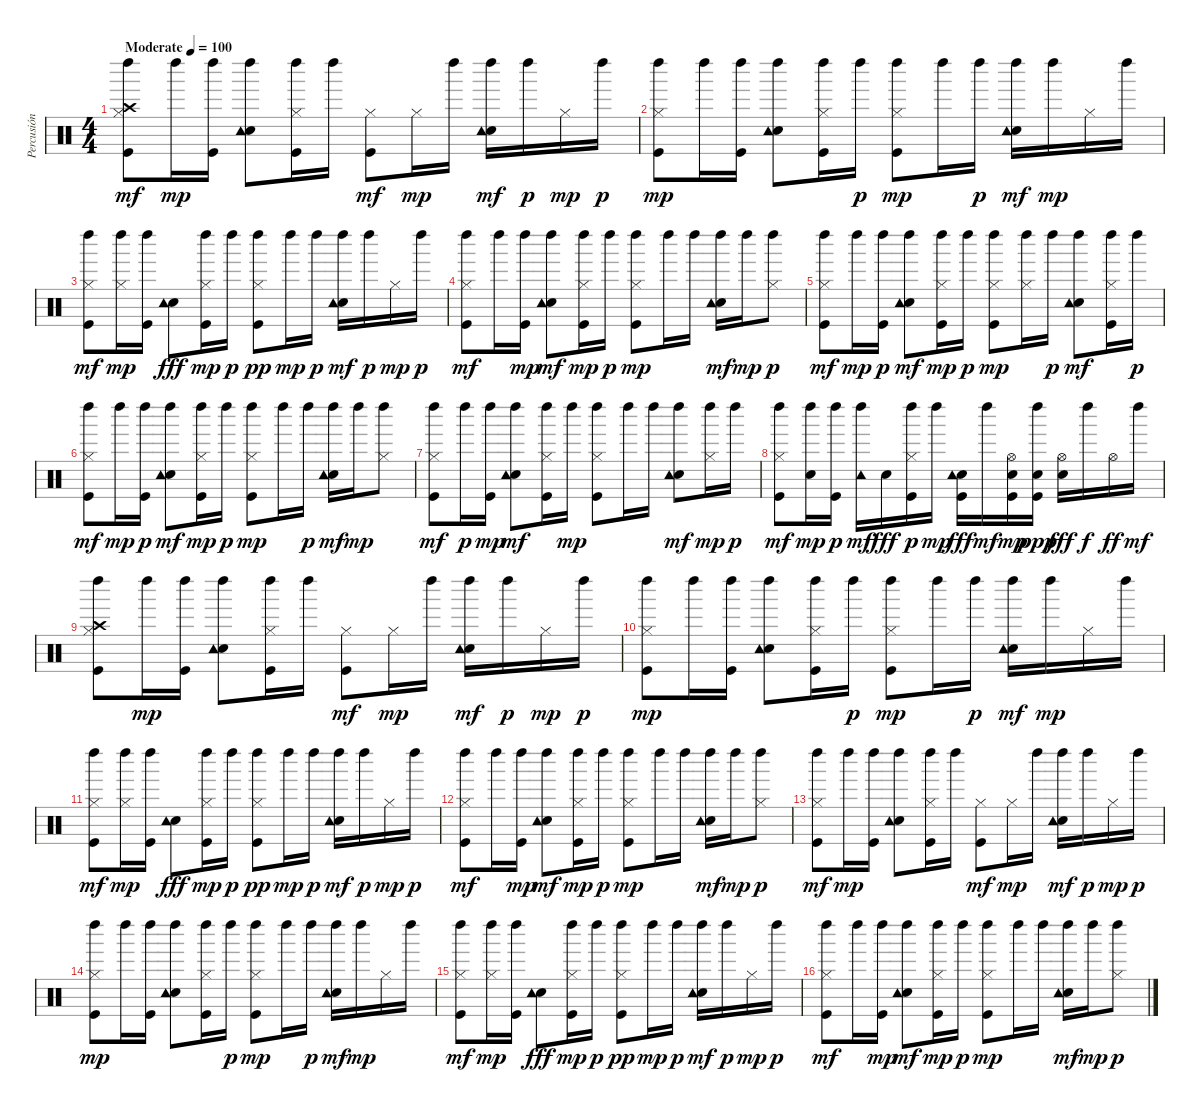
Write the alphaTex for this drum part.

\track ("Percusión" "Percusión") {instrument percussion}
\staff {score}
\articulation defaults
\ts (4 4)
\tempo (100 "Moderate")
\clef neutral
\ks c
("Kick (hit)" "Hi-Hat (closed)" "Crash high (hit)" "Left Maraca (hit)").8{dy mf} "Left Maraca (hit)".16{dy mp} ("Kick (hit)" "Left Maraca (hit)").16 ("Snare (hit) 2" "Tambourine (hit)" "Left Maraca (hit)").8 ("Kick (hit)" "Hi-Hat (closed)" "Left Maraca (hit)").16 "Left Maraca (hit)".16 ("Kick (hit)" "Hi-Hat (closed)").8{dy mf} "Hi-Hat (closed)".16{dy mp} "Left Maraca (hit)".16 ("Snare (hit) 2" "Tambourine (hit)" "Left Maraca (hit)").16{dy mf} "Left Maraca (hit)".16{dy p} "Hi-Hat (closed)".16{dy mp} "Left Maraca (hit)".16{dy p} |
("Kick (hit)" "Hi-Hat (closed)" "Left Maraca (hit)").8{dy mp} "Left Maraca (hit)".16 ("Kick (hit)" "Left Maraca (hit)").16 ("Snare (hit) 2" "Tambourine (hit)" "Left Maraca (hit)").8 ("Kick (hit)" "Hi-Hat (closed)" "Left Maraca (hit)").16 "Left Maraca (hit)".16{dy p} ("Kick (hit)" "Hi-Hat (closed)" "Left Maraca (hit)").8{dy mp} "Left Maraca (hit)".16 "Left Maraca (hit)".16{dy p} ("Snare (hit) 2" "Tambourine (hit)" "Left Maraca (hit)").16{dy mf} "Left Maraca (hit)".16{dy mp} "Hi-Hat (closed)".16 "Left Maraca (hit)".16 |
("Kick (hit)" "Hi-Hat (closed)" "Left Maraca (hit)").8{dy mf} ("Hi-Hat (closed)" "Left Maraca (hit)").16{dy mp} ("Kick (hit)" "Left Maraca (hit)").16 ("Snare (hit) 2" "Tambourine (hit)").8{dy fff} ("Kick (hit)" "Hi-Hat (closed)" "Left Maraca (hit)").16{dy mp} "Left Maraca (hit)".16{dy p} ("Kick (hit)" "Hi-Hat (closed)" "Left Maraca (hit)").8{dy pp} "Left Maraca (hit)".16{dy mp} "Left Maraca (hit)".16{dy p} ("Snare (hit) 2" "Tambourine (hit)" "Left Maraca (hit)").16{dy mf} "Left Maraca (hit)".16{dy p} "Hi-Hat (closed)".16{dy mp} "Left Maraca (hit)".16{dy p} |
("Kick (hit)" "Hi-Hat (closed)" "Left Maraca (hit)").8{dy mf} "Left Maraca (hit)".16 ("Kick (hit)" "Left Maraca (hit)").16{dy mp} ("Snare (hit) 2" "Tambourine (hit)" "Left Maraca (hit)").8{dy mf} ("Kick (hit)" "Hi-Hat (closed)" "Left Maraca (hit)").16{dy mp} "Left Maraca (hit)".16{dy p} ("Kick (hit)" "Hi-Hat (closed)" "Left Maraca (hit)").8{dy mp} "Left Maraca (hit)".16 "Left Maraca (hit)".16 ("Snare (hit) 2" "Tambourine (hit)" "Left Maraca (hit)").16{dy mf} "Left Maraca (hit)".16{dy mp} ("Hi-Hat (closed)" "Left Maraca (hit)").8{dy p} |
("Kick (hit)" "Hi-Hat (closed)" "Left Maraca (hit)").8{dy mf} "Left Maraca (hit)".16{dy mp} ("Kick (hit)" "Left Maraca (hit)").16{dy p} ("Snare (hit) 2" "Tambourine (hit)" "Left Maraca (hit)").8{dy mf} ("Kick (hit)" "Hi-Hat (closed)" "Left Maraca (hit)").16{dy mp} "Left Maraca (hit)".16{dy p} ("Kick (hit)" "Hi-Hat (closed)" "Left Maraca (hit)").8{dy mp} ("Hi-Hat (closed)" "Left Maraca (hit)").16 "Left Maraca (hit)".16{dy p} ("Snare (hit) 2" "Tambourine (hit)" "Left Maraca (hit)").8{dy mf} ("Kick (hit)" "Hi-Hat (closed)" "Left Maraca (hit)").16 "Left Maraca (hit)".16{dy p} |
("Kick (hit)" "Hi-Hat (closed)" "Left Maraca (hit)").8{dy mf} "Left Maraca (hit)".16{dy mp} ("Kick (hit)" "Left Maraca (hit)").16{dy p} ("Snare (hit) 2" "Tambourine (hit)" "Left Maraca (hit)").8{dy mf} ("Kick (hit)" "Hi-Hat (closed)" "Left Maraca (hit)").16{dy mp} "Left Maraca (hit)".16{dy p} ("Kick (hit)" "Hi-Hat (closed)" "Left Maraca (hit)").8{dy mp} "Left Maraca (hit)".16 "Left Maraca (hit)".16{dy p} ("Snare (hit) 2" "Tambourine (hit)" "Left Maraca (hit)").16{dy mf} "Left Maraca (hit)".16{dy mp} ("Hi-Hat (closed)" "Left Maraca (hit)").8 |
("Kick (hit)" "Hi-Hat (closed)" "Left Maraca (hit)").8{dy mf} "Left Maraca (hit)".16{dy p} ("Kick (hit)" "Left Maraca (hit)").16{dy mp} ("Snare (hit) 2" "Tambourine (hit)" "Left Maraca (hit)").8{dy mf} ("Kick (hit)" "Hi-Hat (closed)" "Left Maraca (hit)").16 "Left Maraca (hit)".16{dy mp} ("Kick (hit)" "Hi-Hat (closed)" "Left Maraca (hit)").8 "Left Maraca (hit)".16 "Left Maraca (hit)".16 ("Snare (hit) 2" "Tambourine (hit)" "Left Maraca (hit)").8{dy mf} ("Hi-Hat (closed)" "Left Maraca (hit)").16{dy mp} "Left Maraca (hit)".16{dy p} |
("Kick (hit)" "Hi-Hat (closed)" "Left Maraca (hit)").8{dy mf} ("Snare (hit) 2" "Left Maraca (hit)").16{dy mp} ("Kick (hit)" "Left Maraca (hit)").16{dy p} ("Tambourine (hit)" "Left Maraca (hit)").16{dy mf} "Snare (hit) 2".16{dy fff} ("Kick (hit)" "Hi-Hat (closed)" "Left Maraca (hit)").16{dy p} "Left Maraca (hit)".16{dy mp} ("Kick (hit)" "Snare (hit) 2" "Tambourine (hit)").16{dy fff} "Left Maraca (hit)".16{dy mf} ("Kick (hit)" "Snare (hit) 2" "Hi-Hat (open)").16{dy mp} ("Kick (hit)" "Snare (hit) 2" "Left Maraca (hit)").16{dy ppp} ("Snare (hit) 2" "Hi-Hat (open)").16{dy fff} "Left Maraca (hit)".16{dy f} "Hi-Hat (open)".16{dy ff} "Left Maraca (hit)".16{dy mf} |
("Kick (hit)" "Hi-Hat (closed)" "Crash high (hit)" "Left Maraca (hit)").8 "Left Maraca (hit)".16{dy mp} ("Kick (hit)" "Left Maraca (hit)").16 ("Snare (hit) 2" "Tambourine (hit)" "Left Maraca (hit)").8 ("Kick (hit)" "Hi-Hat (closed)" "Left Maraca (hit)").16 "Left Maraca (hit)".16 ("Kick (hit)" "Hi-Hat (closed)").8{dy mf} "Hi-Hat (closed)".16{dy mp} "Left Maraca (hit)".16 ("Snare (hit) 2" "Tambourine (hit)" "Left Maraca (hit)").16{dy mf} "Left Maraca (hit)".16{dy p} "Hi-Hat (closed)".16{dy mp} "Left Maraca (hit)".16{dy p} |
("Kick (hit)" "Hi-Hat (closed)" "Left Maraca (hit)").8{dy mp} "Left Maraca (hit)".16 ("Kick (hit)" "Left Maraca (hit)").16 ("Snare (hit) 2" "Tambourine (hit)" "Left Maraca (hit)").8 ("Kick (hit)" "Hi-Hat (closed)" "Left Maraca (hit)").16 "Left Maraca (hit)".16{dy p} ("Kick (hit)" "Hi-Hat (closed)" "Left Maraca (hit)").8{dy mp} "Left Maraca (hit)".16 "Left Maraca (hit)".16{dy p} ("Snare (hit) 2" "Tambourine (hit)" "Left Maraca (hit)").16{dy mf} "Left Maraca (hit)".16{dy mp} "Hi-Hat (closed)".16 "Left Maraca (hit)".16 |
("Kick (hit)" "Hi-Hat (closed)" "Left Maraca (hit)").8{dy mf} ("Hi-Hat (closed)" "Left Maraca (hit)").16{dy mp} ("Kick (hit)" "Left Maraca (hit)").16 ("Snare (hit) 2" "Tambourine (hit)").8{dy fff} ("Kick (hit)" "Hi-Hat (closed)" "Left Maraca (hit)").16{dy mp} "Left Maraca (hit)".16{dy p} ("Kick (hit)" "Hi-Hat (closed)" "Left Maraca (hit)").8{dy pp} "Left Maraca (hit)".16{dy mp} "Left Maraca (hit)".16{dy p} ("Snare (hit) 2" "Tambourine (hit)" "Left Maraca (hit)").16{dy mf} "Left Maraca (hit)".16{dy p} "Hi-Hat (closed)".16{dy mp} "Left Maraca (hit)".16{dy p} |
("Kick (hit)" "Hi-Hat (closed)" "Left Maraca (hit)").8{dy mf} "Left Maraca (hit)".16 ("Kick (hit)" "Left Maraca (hit)").16{dy mp} ("Snare (hit) 2" "Tambourine (hit)" "Left Maraca (hit)").8{dy mf} ("Kick (hit)" "Hi-Hat (closed)" "Left Maraca (hit)").16{dy mp} "Left Maraca (hit)".16{dy p} ("Kick (hit)" "Hi-Hat (closed)" "Left Maraca (hit)").8{dy mp} "Left Maraca (hit)".16 "Left Maraca (hit)".16 ("Snare (hit) 2" "Tambourine (hit)" "Left Maraca (hit)").16{dy mf} "Left Maraca (hit)".16{dy mp} ("Hi-Hat (closed)" "Left Maraca (hit)").8{dy p} |
("Kick (hit)" "Hi-Hat (closed)" "Left Maraca (hit)").8{dy mf} "Left Maraca (hit)".16{dy mp} ("Kick (hit)" "Left Maraca (hit)").16 ("Snare (hit) 2" "Tambourine (hit)" "Left Maraca (hit)").8 ("Kick (hit)" "Hi-Hat (closed)" "Left Maraca (hit)").16 "Left Maraca (hit)".16 ("Kick (hit)" "Hi-Hat (closed)").8{dy mf} "Hi-Hat (closed)".16{dy mp} "Left Maraca (hit)".16 ("Snare (hit) 2" "Tambourine (hit)" "Left Maraca (hit)").16{dy mf} "Left Maraca (hit)".16{dy p} "Hi-Hat (closed)".16{dy mp} "Left Maraca (hit)".16{dy p} |
("Kick (hit)" "Hi-Hat (closed)" "Left Maraca (hit)").8{dy mp} "Left Maraca (hit)".16 ("Kick (hit)" "Left Maraca (hit)").16 ("Snare (hit) 2" "Tambourine (hit)" "Left Maraca (hit)").8 ("Kick (hit)" "Hi-Hat (closed)" "Left Maraca (hit)").16 "Left Maraca (hit)".16{dy p} ("Kick (hit)" "Hi-Hat (closed)" "Left Maraca (hit)").8{dy mp} "Left Maraca (hit)".16 "Left Maraca (hit)".16{dy p} ("Snare (hit) 2" "Tambourine (hit)" "Left Maraca (hit)").16{dy mf} "Left Maraca (hit)".16{dy mp} "Hi-Hat (closed)".16 "Left Maraca (hit)".16 |
("Kick (hit)" "Hi-Hat (closed)" "Left Maraca (hit)").8{dy mf} ("Hi-Hat (closed)" "Left Maraca (hit)").16{dy mp} ("Kick (hit)" "Left Maraca (hit)").16 ("Snare (hit) 2" "Tambourine (hit)").8{dy fff} ("Kick (hit)" "Hi-Hat (closed)" "Left Maraca (hit)").16{dy mp} "Left Maraca (hit)".16{dy p} ("Kick (hit)" "Hi-Hat (closed)" "Left Maraca (hit)").8{dy pp} "Left Maraca (hit)".16{dy mp} "Left Maraca (hit)".16{dy p} ("Snare (hit) 2" "Tambourine (hit)" "Left Maraca (hit)").16{dy mf} "Left Maraca (hit)".16{dy p} "Hi-Hat (closed)".16{dy mp} "Left Maraca (hit)".16{dy p} |
("Kick (hit)" "Hi-Hat (closed)" "Left Maraca (hit)").8{dy mf} "Left Maraca (hit)".16 ("Kick (hit)" "Left Maraca (hit)").16{dy mp} ("Snare (hit) 2" "Tambourine (hit)" "Left Maraca (hit)").8{dy mf} ("Kick (hit)" "Hi-Hat (closed)" "Left Maraca (hit)").16{dy mp} "Left Maraca (hit)".16{dy p} ("Kick (hit)" "Hi-Hat (closed)" "Left Maraca (hit)").8{dy mp} "Left Maraca (hit)".16 "Left Maraca (hit)".16 ("Snare (hit) 2" "Tambourine (hit)" "Left Maraca (hit)").16{dy mf} "Left Maraca (hit)".16{dy mp} ("Hi-Hat (closed)" "Left Maraca (hit)").8{dy p}
